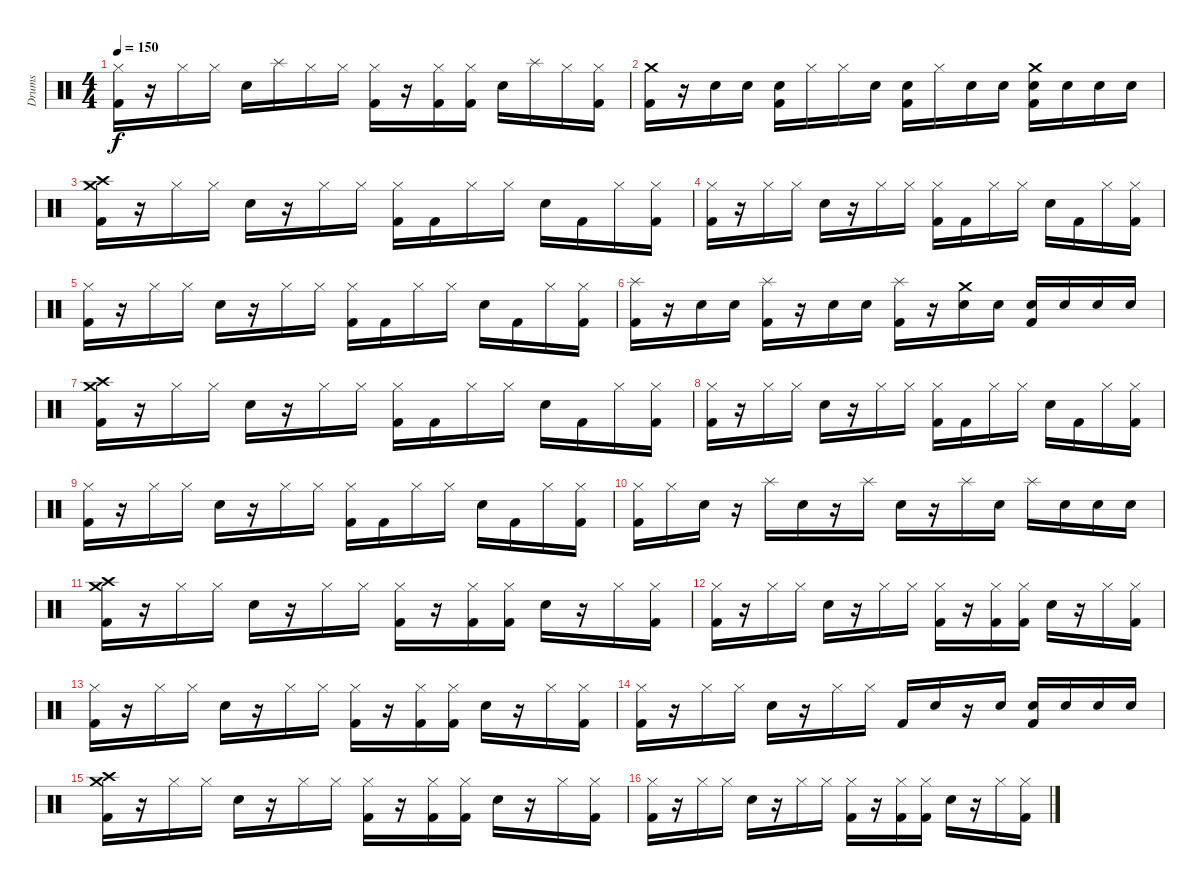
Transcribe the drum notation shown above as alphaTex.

\track ("Drums" "Drums") {instrument percussion}
\staff {score}
\articulation defaults
\ts (4 4)
\tempo 150
\clef neutral
\ks c
("Hi-Hat (closed)" "Kick (hit) 2").16{dy f} r.16 "Hi-Hat (closed)".16 "Hi-Hat (closed)".16 "Snare (hit) 2".16 "Splash (hit)".16 "Hi-Hat (closed)".16 "Hi-Hat (closed)".16 ("Hi-Hat (closed)" "Kick (hit) 2").16 r.16 ("Hi-Hat (closed)" "Kick (hit) 2").16 ("Hi-Hat (closed)" "Kick (hit) 2").16 "Snare (hit) 2".16 "Splash (hit)".16 "Hi-Hat (closed)".16 ("Hi-Hat (closed)" "Kick (hit) 2").16 |
("Crash medium (hit)" "Kick (hit) 2").16 r.16 "Snare (hit) 2".16 "Snare (hit) 2".16 ("Snare (hit) 2" "Kick (hit) 2").16 "Hi-Hat (closed)".16 "Hi-Hat (closed)".16 "Snare (hit) 2".16 ("Snare (hit) 2" "Kick (hit) 2").16 "Hi-Hat (closed)".16 "Snare (hit) 2".16 "Snare (hit) 2".16 ("Crash medium (hit)" "Snare (hit) 2" "Kick (hit) 2").16 "Snare (hit) 2".16 "Snare (hit) 2".16 "Snare (hit) 2".16 |
("Crash medium (hit)" "Crash high (hit)" "Kick (hit) 2").16 r.16 "Hi-Hat (closed)".16 "Hi-Hat (closed)".16 "Snare (hit) 2".16 r.16 "Hi-Hat (closed)".16 "Hi-Hat (closed)".16 ("Hi-Hat (closed)" "Kick (hit) 2").16 "Kick (hit) 2".16 "Hi-Hat (closed)".16 "Hi-Hat (closed)".16 "Snare (hit) 2".16 "Kick (hit) 2".16 "Hi-Hat (closed)".16 ("Hi-Hat (closed)" "Kick (hit) 2").16 |
("Hi-Hat (closed)" "Kick (hit) 2").16 r.16 "Hi-Hat (closed)".16 "Hi-Hat (closed)".16 "Snare (hit) 2".16 r.16 "Hi-Hat (closed)".16 "Hi-Hat (closed)".16 ("Hi-Hat (closed)" "Kick (hit) 2").16 "Kick (hit) 2".16 "Hi-Hat (closed)".16 "Hi-Hat (closed)".16 "Snare (hit) 2".16 "Kick (hit) 2".16 "Hi-Hat (closed)".16 ("Hi-Hat (closed)" "Kick (hit) 2").16 |
("Hi-Hat (closed)" "Kick (hit) 2").16 r.16 "Hi-Hat (closed)".16 "Hi-Hat (closed)".16 "Snare (hit) 2".16 r.16 "Hi-Hat (closed)".16 "Hi-Hat (closed)".16 ("Hi-Hat (closed)" "Kick (hit) 2").16 "Kick (hit) 2".16 "Hi-Hat (closed)".16 "Hi-Hat (closed)".16 "Snare (hit) 2".16 "Kick (hit) 2".16 "Hi-Hat (closed)".16 ("Hi-Hat (closed)" "Kick (hit) 2").16 |
("Splash (hit)" "Kick (hit) 2").16 r.16 "Snare (hit) 2".16 "Snare (hit) 2".16 ("Splash (hit)" "Kick (hit) 2").16 r.16 "Snare (hit) 2".16 "Snare (hit) 2".16 ("Splash (hit)" "Kick (hit) 2").16 r.16 ("Crash medium (hit)" "Snare (hit) 2").16 "Snare (hit) 2".16 ("Snare (hit) 2" "Kick (hit) 2").16 "Snare (hit) 2".16 "Snare (hit) 2".16 "Snare (hit) 2".16 |
("Crash medium (hit)" "Crash high (hit)" "Kick (hit) 2").16 r.16 "Hi-Hat (closed)".16 "Hi-Hat (closed)".16 "Snare (hit) 2".16 r.16 "Hi-Hat (closed)".16 "Hi-Hat (closed)".16 ("Hi-Hat (closed)" "Kick (hit) 2").16 "Kick (hit) 2".16 "Hi-Hat (closed)".16 "Hi-Hat (closed)".16 "Snare (hit) 2".16 "Kick (hit) 2".16 "Hi-Hat (closed)".16 ("Hi-Hat (closed)" "Kick (hit) 2").16 |
("Hi-Hat (closed)" "Kick (hit) 2").16 r.16 "Hi-Hat (closed)".16 "Hi-Hat (closed)".16 "Snare (hit) 2".16 r.16 "Hi-Hat (closed)".16 "Hi-Hat (closed)".16 ("Hi-Hat (closed)" "Kick (hit) 2").16 "Kick (hit) 2".16 "Hi-Hat (closed)".16 "Hi-Hat (closed)".16 "Snare (hit) 2".16 "Kick (hit) 2".16 "Hi-Hat (closed)".16 ("Hi-Hat (closed)" "Kick (hit) 2").16 |
("Hi-Hat (closed)" "Kick (hit) 2").16 r.16 "Hi-Hat (closed)".16 "Hi-Hat (closed)".16 "Snare (hit) 2".16 r.16 "Hi-Hat (closed)".16 "Hi-Hat (closed)".16 ("Hi-Hat (closed)" "Kick (hit) 2").16 "Kick (hit) 2".16 "Hi-Hat (closed)".16 "Hi-Hat (closed)".16 "Snare (hit) 2".16 "Kick (hit) 2".16 "Hi-Hat (closed)".16 ("Hi-Hat (closed)" "Kick (hit) 2").16 |
("Hi-Hat (closed)" "Kick (hit) 2").16 "Hi-Hat (closed)".16 "Snare (hit) 2".16 r.16 "Splash (hit)".16 "Snare (hit) 2".16 r.16 "Splash (hit)".16 "Snare (hit) 2".16 r.16 "Splash (hit)".16 "Snare (hit) 2".16 "Splash (hit)".16 "Snare (hit) 2".16 "Snare (hit) 2".16 "Snare (hit) 2".16 |
("Crash medium (hit)" "Crash high (hit)" "Kick (hit) 2").16 r.16 "Hi-Hat (closed)".16 "Hi-Hat (closed)".16 "Snare (hit) 2".16 r.16 "Hi-Hat (closed)".16 "Hi-Hat (closed)".16 ("Hi-Hat (closed)" "Kick (hit) 2").16 r.16 ("Hi-Hat (closed)" "Kick (hit) 2").16 ("Hi-Hat (closed)" "Kick (hit) 2").16 "Snare (hit) 2".16 r.16 "Hi-Hat (closed)".16 ("Hi-Hat (closed)" "Kick (hit) 2").16 |
("Hi-Hat (closed)" "Kick (hit) 2").16 r.16 "Hi-Hat (closed)".16 "Hi-Hat (closed)".16 "Snare (hit) 2".16 r.16 "Hi-Hat (closed)".16 "Hi-Hat (closed)".16 ("Hi-Hat (closed)" "Kick (hit) 2").16 r.16 ("Hi-Hat (closed)" "Kick (hit) 2").16 ("Hi-Hat (closed)" "Kick (hit) 2").16 "Snare (hit) 2".16 r.16 "Hi-Hat (closed)".16 ("Hi-Hat (closed)" "Kick (hit) 2").16 |
("Hi-Hat (closed)" "Kick (hit) 2").16 r.16 "Hi-Hat (closed)".16 "Hi-Hat (closed)".16 "Snare (hit) 2".16 r.16 "Hi-Hat (closed)".16 "Hi-Hat (closed)".16 ("Hi-Hat (closed)" "Kick (hit) 2").16 r.16 ("Hi-Hat (closed)" "Kick (hit) 2").16 ("Hi-Hat (closed)" "Kick (hit) 2").16 "Snare (hit) 2".16 r.16 "Hi-Hat (closed)".16 ("Hi-Hat (closed)" "Kick (hit) 2").16 |
("Hi-Hat (closed)" "Kick (hit) 2").16 r.16 "Hi-Hat (closed)".16 "Hi-Hat (closed)".16 "Snare (hit) 2".16 r.16 "Hi-Hat (closed)".16 "Hi-Hat (closed)".16 "Kick (hit) 2".16 "Snare (hit) 2".16 r.16 "Snare (hit) 2".16 ("Snare (hit) 2" "Kick (hit) 2").16 "Snare (hit) 2".16 "Snare (hit) 2".16 "Snare (hit) 2".16 |
("Crash medium (hit)" "Crash high (hit)" "Kick (hit) 2").16 r.16 "Hi-Hat (closed)".16 "Hi-Hat (closed)".16 "Snare (hit) 2".16 r.16 "Hi-Hat (closed)".16 "Hi-Hat (closed)".16 ("Hi-Hat (closed)" "Kick (hit) 2").16 r.16 ("Hi-Hat (closed)" "Kick (hit) 2").16 ("Hi-Hat (closed)" "Kick (hit) 2").16 "Snare (hit) 2".16 r.16 "Hi-Hat (closed)".16 ("Hi-Hat (closed)" "Kick (hit) 2").16 |
("Hi-Hat (closed)" "Kick (hit) 2").16 r.16 "Hi-Hat (closed)".16 "Hi-Hat (closed)".16 "Snare (hit) 2".16 r.16 "Hi-Hat (closed)".16 "Hi-Hat (closed)".16 ("Hi-Hat (closed)" "Kick (hit) 2").16 r.16 ("Hi-Hat (closed)" "Kick (hit) 2").16 ("Hi-Hat (closed)" "Kick (hit) 2").16 "Snare (hit) 2".16 r.16 "Hi-Hat (closed)".16 ("Hi-Hat (closed)" "Kick (hit) 2").16
